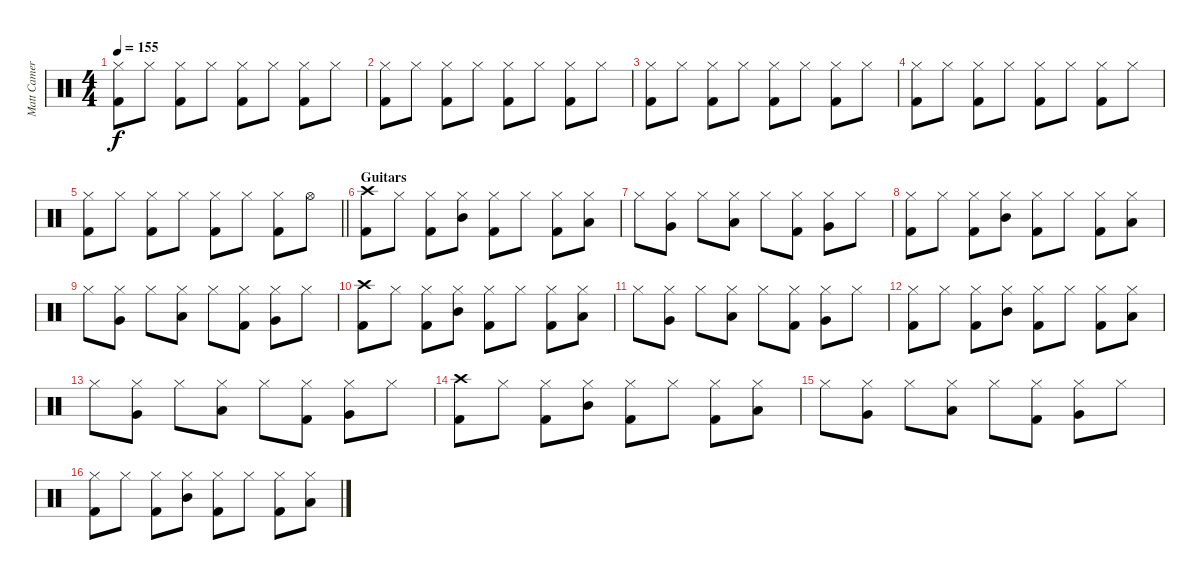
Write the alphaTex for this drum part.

\track ("Matt Cameron" "Matt Camer") {instrument percussion}
\staff {score}
\articulation defaults
\ts (4 4)
\tempo 155
\clef neutral
\ks c
("Hi-Hat (closed)" "Kick (hit) 2").8{dy f} "Hi-Hat (closed)".8 ("Hi-Hat (closed)" "Kick (hit) 2").8 "Hi-Hat (closed)".8 ("Hi-Hat (closed)" "Kick (hit) 2").8 "Hi-Hat (closed)".8 ("Hi-Hat (closed)" "Kick (hit) 2").8 "Hi-Hat (closed)".8 |
("Hi-Hat (closed)" "Kick (hit) 2").8 "Hi-Hat (closed)".8 ("Hi-Hat (closed)" "Kick (hit) 2").8 "Hi-Hat (closed)".8 ("Hi-Hat (closed)" "Kick (hit) 2").8 "Hi-Hat (closed)".8 ("Hi-Hat (closed)" "Kick (hit) 2").8 "Hi-Hat (closed)".8 |
("Hi-Hat (closed)" "Kick (hit) 2").8 "Hi-Hat (closed)".8 ("Hi-Hat (closed)" "Kick (hit) 2").8 "Hi-Hat (closed)".8 ("Hi-Hat (closed)" "Kick (hit) 2").8 "Hi-Hat (closed)".8 ("Hi-Hat (closed)" "Kick (hit) 2").8 "Hi-Hat (closed)".8 |
("Hi-Hat (closed)" "Kick (hit) 2").8 "Hi-Hat (closed)".8 ("Hi-Hat (closed)" "Kick (hit) 2").8 "Hi-Hat (closed)".8 ("Hi-Hat (closed)" "Kick (hit) 2").8 "Hi-Hat (closed)".8 ("Hi-Hat (closed)" "Kick (hit) 2").8 "Hi-Hat (closed)".8 |
\barLineRight lightlight
("Hi-Hat (closed)" "Kick (hit) 2").8 "Hi-Hat (closed)".8 ("Hi-Hat (closed)" "Kick (hit) 2").8 "Hi-Hat (closed)".8 ("Hi-Hat (closed)" "Kick (hit) 2").8 "Hi-Hat (closed)".8 ("Hi-Hat (closed)" "Kick (hit) 2").8 "Hi-Hat (open)".8 |
\section ("" "Guitars")
("Crash high (hit)" "Kick (hit) 2").8 "Hi-Hat (closed)".8 ("Hi-Hat (closed)" "Kick (hit) 2").8 ("Hi-Hat (closed)" "Mid Tom (hit)").8 ("Hi-Hat (closed)" "Kick (hit) 2").8 "Hi-Hat (closed)".8 ("Hi-Hat (closed)" "Kick (hit) 2").8 ("Hi-Hat (closed)" "Low Tom (hit)").8 |
"Hi-Hat (closed)".8 ("Hi-Hat (closed)" "Very Low Tom (hit)").8 "Hi-Hat (closed)".8 ("Hi-Hat (closed)" "Low Floor Tom (hit)").8 "Hi-Hat (closed)".8 ("Hi-Hat (closed)" "Kick (hit) 2").8 ("Hi-Hat (closed)" "Very Low Tom (hit)").8 "Hi-Hat (closed)".8 |
("Hi-Hat (closed)" "Kick (hit) 2").8 "Hi-Hat (closed)".8 ("Hi-Hat (closed)" "Kick (hit) 2").8 ("Hi-Hat (closed)" "Mid Tom (hit)").8 ("Hi-Hat (closed)" "Kick (hit) 2").8 "Hi-Hat (closed)".8 ("Hi-Hat (closed)" "Kick (hit) 2").8 ("Hi-Hat (closed)" "Low Tom (hit)").8 |
"Hi-Hat (closed)".8 ("Hi-Hat (closed)" "Very Low Tom (hit)").8 "Hi-Hat (closed)".8 ("Hi-Hat (closed)" "Low Floor Tom (hit)").8 "Hi-Hat (closed)".8 ("Hi-Hat (closed)" "Kick (hit) 2").8 ("Hi-Hat (closed)" "Very Low Tom (hit)").8 "Hi-Hat (closed)".8 |
("Crash high (hit)" "Kick (hit) 2").8 "Hi-Hat (closed)".8 ("Hi-Hat (closed)" "Kick (hit) 2").8 ("Hi-Hat (closed)" "Mid Tom (hit)").8 ("Hi-Hat (closed)" "Kick (hit) 2").8 "Hi-Hat (closed)".8 ("Hi-Hat (closed)" "Kick (hit) 2").8 ("Hi-Hat (closed)" "Low Tom (hit)").8 |
"Hi-Hat (closed)".8 ("Hi-Hat (closed)" "Very Low Tom (hit)").8 "Hi-Hat (closed)".8 ("Hi-Hat (closed)" "Low Floor Tom (hit)").8 "Hi-Hat (closed)".8 ("Hi-Hat (closed)" "Kick (hit) 2").8 ("Hi-Hat (closed)" "Very Low Tom (hit)").8 "Hi-Hat (closed)".8 |
("Hi-Hat (closed)" "Kick (hit) 2").8 "Hi-Hat (closed)".8 ("Hi-Hat (closed)" "Kick (hit) 2").8 ("Hi-Hat (closed)" "Mid Tom (hit)").8 ("Hi-Hat (closed)" "Kick (hit) 2").8 "Hi-Hat (closed)".8 ("Hi-Hat (closed)" "Kick (hit) 2").8 ("Hi-Hat (closed)" "Low Tom (hit)").8 |
"Hi-Hat (closed)".8 ("Hi-Hat (closed)" "Very Low Tom (hit)").8 "Hi-Hat (closed)".8 ("Hi-Hat (closed)" "Low Floor Tom (hit)").8 "Hi-Hat (closed)".8 ("Hi-Hat (closed)" "Kick (hit) 2").8 ("Hi-Hat (closed)" "Very Low Tom (hit)").8 "Hi-Hat (closed)".8 |
("Crash high (hit)" "Kick (hit) 2").8 "Hi-Hat (closed)".8 ("Hi-Hat (closed)" "Kick (hit) 2").8 ("Hi-Hat (closed)" "Mid Tom (hit)").8 ("Hi-Hat (closed)" "Kick (hit) 2").8 "Hi-Hat (closed)".8 ("Hi-Hat (closed)" "Kick (hit) 2").8 ("Hi-Hat (closed)" "Low Tom (hit)").8 |
"Hi-Hat (closed)".8 ("Hi-Hat (closed)" "Very Low Tom (hit)").8 "Hi-Hat (closed)".8 ("Hi-Hat (closed)" "Low Floor Tom (hit)").8 "Hi-Hat (closed)".8 ("Hi-Hat (closed)" "Kick (hit) 2").8 ("Hi-Hat (closed)" "Very Low Tom (hit)").8 "Hi-Hat (closed)".8 |
("Hi-Hat (closed)" "Kick (hit) 2").8 "Hi-Hat (closed)".8 ("Hi-Hat (closed)" "Kick (hit) 2").8 ("Hi-Hat (closed)" "Mid Tom (hit)").8 ("Hi-Hat (closed)" "Kick (hit) 2").8 "Hi-Hat (closed)".8 ("Hi-Hat (closed)" "Kick (hit) 2").8 ("Hi-Hat (closed)" "Low Tom (hit)").8
